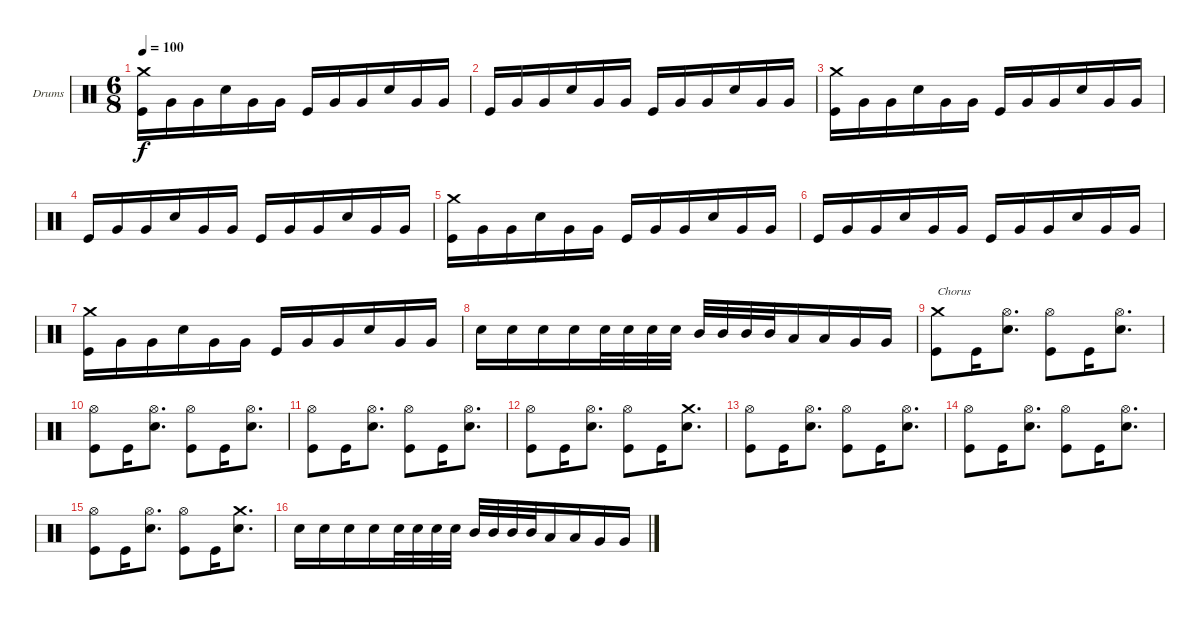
\defaultSystemsLayout 4
\bracketExtendMode groupsimilarinstruments
\firstSystemTrackNameOrientation horizontal
\otherSystemsTrackNameOrientation horizontal
\track ("Stefan Schwarzmann" "Drums") {instrument percussion}
\staff {score}
\articulation defaults
\ts (6 8)
\tempo 100
\clef neutral
\ks c
("Crash medium (hit)" "Kick (hit)").16{dy f} "Very Low Tom (hit)".16 "Very Low Tom (hit)".16 "Snare (hit) 2".16 "Very Low Tom (hit)".16 "Very Low Tom (hit)".16 "Kick (hit)".16 "Very Low Tom (hit)".16 "Very Low Tom (hit)".16 "Snare (hit) 2".16 "Very Low Tom (hit)".16 "Very Low Tom (hit)".16 |
"Kick (hit)".16 "Very Low Tom (hit)".16 "Very Low Tom (hit)".16 "Snare (hit) 2".16 "Very Low Tom (hit)".16 "Very Low Tom (hit)".16 "Kick (hit)".16 "Very Low Tom (hit)".16 "Very Low Tom (hit)".16 "Snare (hit) 2".16 "Very Low Tom (hit)".16 "Very Low Tom (hit)".16 |
("Crash medium (hit)" "Kick (hit)").16 "Very Low Tom (hit)".16 "Very Low Tom (hit)".16 "Snare (hit) 2".16 "Very Low Tom (hit)".16 "Very Low Tom (hit)".16 "Kick (hit)".16 "Very Low Tom (hit)".16 "Very Low Tom (hit)".16 "Snare (hit) 2".16 "Very Low Tom (hit)".16 "Very Low Tom (hit)".16 |
"Kick (hit)".16 "Very Low Tom (hit)".16 "Very Low Tom (hit)".16 "Snare (hit) 2".16 "Very Low Tom (hit)".16 "Very Low Tom (hit)".16 "Kick (hit)".16 "Very Low Tom (hit)".16 "Very Low Tom (hit)".16 "Snare (hit) 2".16 "Very Low Tom (hit)".16 "Very Low Tom (hit)".16 |
("Crash medium (hit)" "Kick (hit)").16 "Very Low Tom (hit)".16 "Very Low Tom (hit)".16 "Snare (hit) 2".16 "Very Low Tom (hit)".16 "Very Low Tom (hit)".16 "Kick (hit)".16 "Very Low Tom (hit)".16 "Very Low Tom (hit)".16 "Snare (hit) 2".16 "Very Low Tom (hit)".16 "Very Low Tom (hit)".16 |
"Kick (hit)".16 "Very Low Tom (hit)".16 "Very Low Tom (hit)".16 "Snare (hit) 2".16 "Very Low Tom (hit)".16 "Very Low Tom (hit)".16 "Kick (hit)".16 "Very Low Tom (hit)".16 "Very Low Tom (hit)".16 "Snare (hit) 2".16 "Very Low Tom (hit)".16 "Very Low Tom (hit)".16 |
("Crash medium (hit)" "Kick (hit)").16 "Very Low Tom (hit)".16 "Very Low Tom (hit)".16 "Snare (hit) 2".16 "Very Low Tom (hit)".16 "Very Low Tom (hit)".16 "Kick (hit)".16 "Very Low Tom (hit)".16 "Very Low Tom (hit)".16 "Snare (hit) 2".16 "Very Low Tom (hit)".16 "Very Low Tom (hit)".16 |
"Snare (hit) 2".16 "Snare (hit) 2".16 "Snare (hit) 2".16 "Snare (hit) 2".16 "Snare (hit) 2".32 "Snare (hit) 2".32 "Snare (hit) 2".32 "Snare (hit) 2".32 "Mid Tom (hit)".32 "Mid Tom (hit)".32 "Mid Tom (hit)".32 "Mid Tom (hit)".32 "Low Tom (hit)".16 "Low Tom (hit)".16 "Very Low Tom (hit)".16 "Very Low Tom (hit)".16 |
("Kick (hit)" "Crash medium (hit)").8{txt "Chorus"} "Kick (hit)".16 ("Snare (hit) 2" "Hi-Hat (open)").8{d} ("Kick (hit)" "Hi-Hat (open)").8 "Kick (hit)".16 ("Snare (hit) 2" "Hi-Hat (open)").8{d} |
("Kick (hit)" "Hi-Hat (open)").8 "Kick (hit)".16 ("Snare (hit) 2" "Hi-Hat (open)").8{d} ("Kick (hit)" "Hi-Hat (open)").8 "Kick (hit)".16 ("Snare (hit) 2" "Hi-Hat (open)").8{d} |
("Kick (hit)" "Hi-Hat (open)").8 "Kick (hit)".16 ("Snare (hit) 2" "Hi-Hat (open)").8{d} ("Kick (hit)" "Hi-Hat (open)").8 "Kick (hit)".16 ("Snare (hit) 2" "Hi-Hat (open)").8{d} |
("Kick (hit)" "Hi-Hat (open)").8 "Kick (hit)".16 ("Snare (hit) 2" "Hi-Hat (open)").8{d} ("Kick (hit)" "Hi-Hat (open)").8 "Kick (hit)".16 ("Snare (hit) 2" "Crash medium (hit)").8{d} |
("Kick (hit)" "Hi-Hat (open)").8 "Kick (hit)".16 ("Snare (hit) 2" "Hi-Hat (open)").8{d} ("Kick (hit)" "Hi-Hat (open)").8 "Kick (hit)".16 ("Snare (hit) 2" "Hi-Hat (open)").8{d} |
("Kick (hit)" "Hi-Hat (open)").8 "Kick (hit)".16 ("Snare (hit) 2" "Hi-Hat (open)").8{d} ("Kick (hit)" "Hi-Hat (open)").8 "Kick (hit)".16 ("Snare (hit) 2" "Hi-Hat (open)").8{d} |
("Kick (hit)" "Hi-Hat (open)").8 "Kick (hit)".16 ("Snare (hit) 2" "Hi-Hat (open)").8{d} ("Kick (hit)" "Hi-Hat (open)").8 "Kick (hit)".16 ("Snare (hit) 2" "Crash medium (hit)").8{d} |
"Snare (hit) 2".16 "Snare (hit) 2".16 "Snare (hit) 2".16 "Snare (hit) 2".16 "Snare (hit) 2".32 "Snare (hit) 2".32 "Snare (hit) 2".32 "Snare (hit) 2".32 "Mid Tom (hit)".32 "Mid Tom (hit)".32 "Mid Tom (hit)".32 "Mid Tom (hit)".32 "Low Tom (hit)".16 "Low Tom (hit)".16 "Very Low Tom (hit)".16 "Very Low Tom (hit)".16
